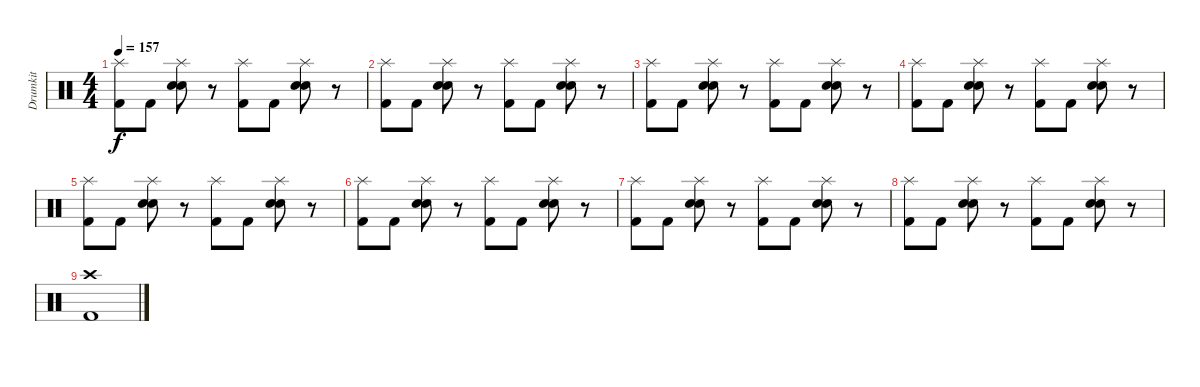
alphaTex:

\track ("Drumkit" "Drumkit") {instrument percussion}
\staff {score}
\articulation defaults
\ts (4 4)
\tempo 157
\clef neutral
\ks c
("Splash (hit)" "Kick (hit) 2").8{dy f} "Kick (hit) 2".8 ("Splash (hit)" "Electric Snare (hit)" "Snare (hit) 2").8 r.8 ("Splash (hit)" "Kick (hit) 2").8 "Kick (hit) 2".8 ("Splash (hit)" "Electric Snare (hit)" "Snare (hit) 2").8 r.8 |
("Splash (hit)" "Kick (hit) 2").8 "Kick (hit) 2".8 ("Splash (hit)" "Electric Snare (hit)" "Snare (hit) 2").8 r.8 ("Splash (hit)" "Kick (hit) 2").8 "Kick (hit) 2".8 ("Splash (hit)" "Electric Snare (hit)" "Snare (hit) 2").8 r.8 |
("Splash (hit)" "Kick (hit) 2").8 "Kick (hit) 2".8 ("Splash (hit)" "Electric Snare (hit)" "Snare (hit) 2").8 r.8 ("Splash (hit)" "Kick (hit) 2").8 "Kick (hit) 2".8 ("Splash (hit)" "Electric Snare (hit)" "Snare (hit) 2").8 r.8 |
("Splash (hit)" "Kick (hit) 2").8 "Kick (hit) 2".8 ("Splash (hit)" "Electric Snare (hit)" "Snare (hit) 2").8 r.8 ("Splash (hit)" "Kick (hit) 2").8 "Kick (hit) 2".8 ("Splash (hit)" "Electric Snare (hit)" "Snare (hit) 2").8 r.8 |
("Splash (hit)" "Kick (hit) 2").8 "Kick (hit) 2".8 ("Splash (hit)" "Electric Snare (hit)" "Snare (hit) 2").8 r.8 ("Splash (hit)" "Kick (hit) 2").8 "Kick (hit) 2".8 ("Splash (hit)" "Electric Snare (hit)" "Snare (hit) 2").8 r.8 |
("Splash (hit)" "Kick (hit) 2").8 "Kick (hit) 2".8 ("Splash (hit)" "Electric Snare (hit)" "Snare (hit) 2").8 r.8 ("Splash (hit)" "Kick (hit) 2").8 "Kick (hit) 2".8 ("Splash (hit)" "Electric Snare (hit)" "Snare (hit) 2").8 r.8 |
("Splash (hit)" "Kick (hit) 2").8 "Kick (hit) 2".8 ("Splash (hit)" "Electric Snare (hit)" "Snare (hit) 2").8 r.8 ("Splash (hit)" "Kick (hit) 2").8 "Kick (hit) 2".8 ("Splash (hit)" "Electric Snare (hit)" "Snare (hit) 2").8 r.8 |
("Splash (hit)" "Kick (hit) 2").8 "Kick (hit) 2".8 ("Splash (hit)" "Electric Snare (hit)" "Snare (hit) 2").8 r.8 ("Splash (hit)" "Kick (hit) 2").8 "Kick (hit) 2".8 ("Splash (hit)" "Electric Snare (hit)" "Snare (hit) 2").8 r.8 |
("Crash high (hit)" "Kick (hit) 2").1
